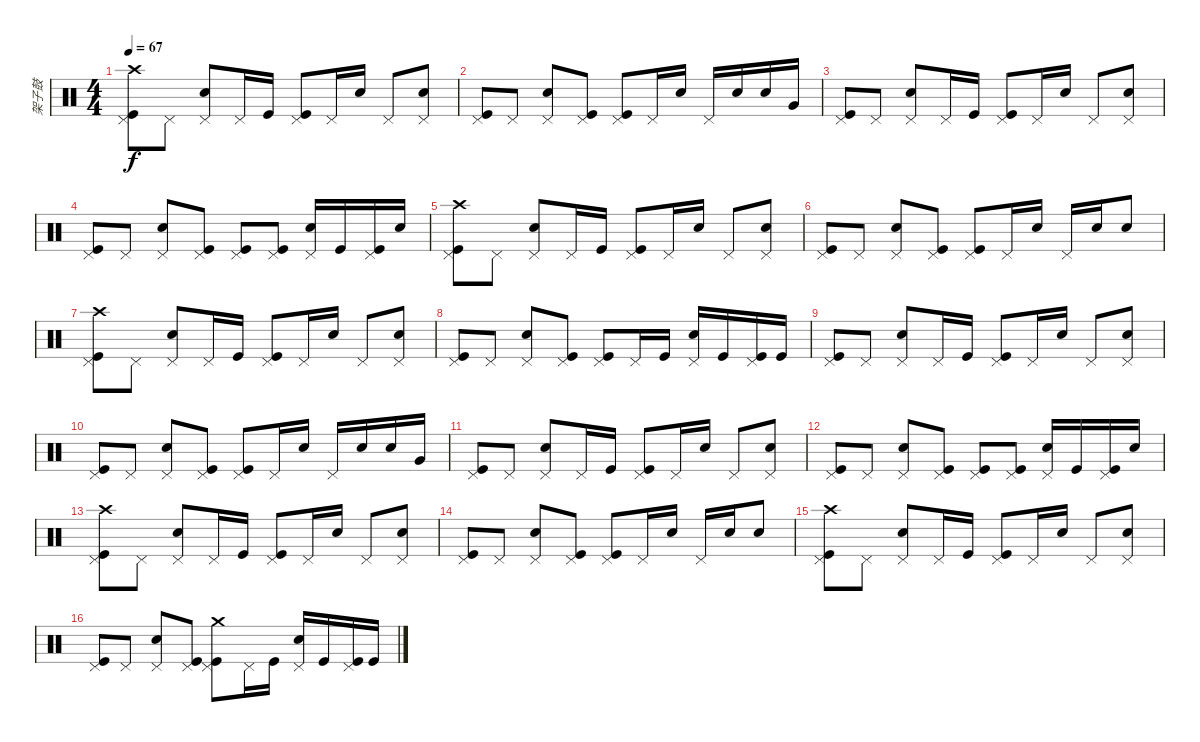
\track ("架子鼓" "架子鼓") {instrument percussion}
\staff {score}
\articulation defaults
\ts (4 4)
\tempo 67
\clef neutral
\ks c
("Kick (hit)" "Pedal Hi-Hat (hit)" "Crash high (hit)").8{dy f} "Pedal Hi-Hat (hit)".8 ("Snare (hit) 2" "Pedal Hi-Hat (hit)").8 "Pedal Hi-Hat (hit)".16 "Kick (hit)".16 ("Kick (hit)" "Pedal Hi-Hat (hit)").8 "Pedal Hi-Hat (hit)".16 "Snare (hit) 2".16 "Pedal Hi-Hat (hit)".8 ("Snare (hit) 2" "Pedal Hi-Hat (hit)").8 |
("Kick (hit)" "Pedal Hi-Hat (hit)").8 "Pedal Hi-Hat (hit)".8 ("Snare (hit) 2" "Pedal Hi-Hat (hit)").8 ("Kick (hit)" "Pedal Hi-Hat (hit)").8 ("Kick (hit)" "Pedal Hi-Hat (hit)").8 "Pedal Hi-Hat (hit)".16 "Snare (hit) 2".16 "Pedal Hi-Hat (hit)".16 "Snare (hit) 2".16 "Snare (hit) 2".16 "Very Low Tom (hit)".16 |
("Kick (hit)" "Pedal Hi-Hat (hit)").8 "Pedal Hi-Hat (hit)".8 ("Snare (hit) 2" "Pedal Hi-Hat (hit)").8 "Pedal Hi-Hat (hit)".16 "Kick (hit)".16 ("Kick (hit)" "Pedal Hi-Hat (hit)").8 "Pedal Hi-Hat (hit)".16 "Snare (hit) 2".16 "Pedal Hi-Hat (hit)".8 ("Snare (hit) 2" "Pedal Hi-Hat (hit)").8 |
("Kick (hit)" "Pedal Hi-Hat (hit)").8 "Pedal Hi-Hat (hit)".8 ("Snare (hit) 2" "Pedal Hi-Hat (hit)").8 ("Kick (hit)" "Pedal Hi-Hat (hit)").8 ("Kick (hit)" "Pedal Hi-Hat (hit)").8 ("Kick (hit)" "Pedal Hi-Hat (hit)").8 ("Snare (hit) 2" "Pedal Hi-Hat (hit)").16 "Kick (hit)".16 ("Kick (hit)" "Pedal Hi-Hat (hit)").16 "Snare (hit) 2".16 |
("Kick (hit)" "Pedal Hi-Hat (hit)" "Crash high (hit)").8 "Pedal Hi-Hat (hit)".8 ("Snare (hit) 2" "Pedal Hi-Hat (hit)").8 "Pedal Hi-Hat (hit)".16 "Kick (hit)".16 ("Kick (hit)" "Pedal Hi-Hat (hit)").8 "Pedal Hi-Hat (hit)".16 "Snare (hit) 2".16 "Pedal Hi-Hat (hit)".8 ("Snare (hit) 2" "Pedal Hi-Hat (hit)").8 |
("Kick (hit)" "Pedal Hi-Hat (hit)").8 "Pedal Hi-Hat (hit)".8 ("Snare (hit) 2" "Pedal Hi-Hat (hit)").8 ("Kick (hit)" "Pedal Hi-Hat (hit)").8 ("Kick (hit)" "Pedal Hi-Hat (hit)").8 "Pedal Hi-Hat (hit)".16 "Snare (hit) 2".16 "Pedal Hi-Hat (hit)".16 "Snare (hit) 2".16 "Snare (hit) 2".8 |
("Kick (hit)" "Pedal Hi-Hat (hit)" "Crash high (hit)").8 "Pedal Hi-Hat (hit)".8 ("Snare (hit) 2" "Pedal Hi-Hat (hit)").8 "Pedal Hi-Hat (hit)".16 "Kick (hit)".16 ("Kick (hit)" "Pedal Hi-Hat (hit)").8 "Pedal Hi-Hat (hit)".16 "Snare (hit) 2".16 "Pedal Hi-Hat (hit)".8 ("Snare (hit) 2" "Pedal Hi-Hat (hit)").8 |
("Kick (hit)" "Pedal Hi-Hat (hit)").8 "Pedal Hi-Hat (hit)".8 ("Snare (hit) 2" "Pedal Hi-Hat (hit)").8 ("Kick (hit)" "Pedal Hi-Hat (hit)").8 ("Kick (hit)" "Pedal Hi-Hat (hit)").8 "Pedal Hi-Hat (hit)".16 "Kick (hit)".16 ("Snare (hit) 2" "Pedal Hi-Hat (hit)").16 "Kick (hit)".16 ("Kick (hit)" "Pedal Hi-Hat (hit)").16 "Kick (hit)".16 |
("Kick (hit)" "Pedal Hi-Hat (hit)").8 "Pedal Hi-Hat (hit)".8 ("Snare (hit) 2" "Pedal Hi-Hat (hit)").8 "Pedal Hi-Hat (hit)".16 "Kick (hit)".16 ("Kick (hit)" "Pedal Hi-Hat (hit)").8 "Pedal Hi-Hat (hit)".16 "Snare (hit) 2".16 "Pedal Hi-Hat (hit)".8 ("Snare (hit) 2" "Pedal Hi-Hat (hit)").8 |
("Kick (hit)" "Pedal Hi-Hat (hit)").8 "Pedal Hi-Hat (hit)".8 ("Snare (hit) 2" "Pedal Hi-Hat (hit)").8 ("Kick (hit)" "Pedal Hi-Hat (hit)").8 ("Kick (hit)" "Pedal Hi-Hat (hit)").8 "Pedal Hi-Hat (hit)".16 "Snare (hit) 2".16 "Pedal Hi-Hat (hit)".16 "Snare (hit) 2".16 "Snare (hit) 2".16 "Very Low Tom (hit)".16 |
("Kick (hit)" "Pedal Hi-Hat (hit)").8 "Pedal Hi-Hat (hit)".8 ("Snare (hit) 2" "Pedal Hi-Hat (hit)").8 "Pedal Hi-Hat (hit)".16 "Kick (hit)".16 ("Kick (hit)" "Pedal Hi-Hat (hit)").8 "Pedal Hi-Hat (hit)".16 "Snare (hit) 2".16 "Pedal Hi-Hat (hit)".8 ("Snare (hit) 2" "Pedal Hi-Hat (hit)").8 |
("Kick (hit)" "Pedal Hi-Hat (hit)").8 "Pedal Hi-Hat (hit)".8 ("Snare (hit) 2" "Pedal Hi-Hat (hit)").8 ("Kick (hit)" "Pedal Hi-Hat (hit)").8 ("Kick (hit)" "Pedal Hi-Hat (hit)").8 ("Kick (hit)" "Pedal Hi-Hat (hit)").8 ("Snare (hit) 2" "Pedal Hi-Hat (hit)").16 "Kick (hit)".16 ("Kick (hit)" "Pedal Hi-Hat (hit)").16 "Snare (hit) 2".16 |
("Kick (hit)" "Pedal Hi-Hat (hit)" "Crash high (hit)").8 "Pedal Hi-Hat (hit)".8 ("Snare (hit) 2" "Pedal Hi-Hat (hit)").8 "Pedal Hi-Hat (hit)".16 "Kick (hit)".16 ("Kick (hit)" "Pedal Hi-Hat (hit)").8 "Pedal Hi-Hat (hit)".16 "Snare (hit) 2".16 "Pedal Hi-Hat (hit)".8 ("Snare (hit) 2" "Pedal Hi-Hat (hit)").8 |
("Kick (hit)" "Pedal Hi-Hat (hit)").8 "Pedal Hi-Hat (hit)".8 ("Snare (hit) 2" "Pedal Hi-Hat (hit)").8 ("Kick (hit)" "Pedal Hi-Hat (hit)").8 ("Kick (hit)" "Pedal Hi-Hat (hit)").8 "Pedal Hi-Hat (hit)".16 "Snare (hit) 2".16 "Pedal Hi-Hat (hit)".16 "Snare (hit) 2".16 "Snare (hit) 2".8 |
("Kick (hit)" "Pedal Hi-Hat (hit)" "Crash high (hit)").8 "Pedal Hi-Hat (hit)".8 ("Snare (hit) 2" "Pedal Hi-Hat (hit)").8 "Pedal Hi-Hat (hit)".16 "Kick (hit)".16 ("Kick (hit)" "Pedal Hi-Hat (hit)").8 "Pedal Hi-Hat (hit)".16 "Snare (hit) 2".16 "Pedal Hi-Hat (hit)".8 ("Snare (hit) 2" "Pedal Hi-Hat (hit)").8 |
("Kick (hit)" "Pedal Hi-Hat (hit)").8 "Pedal Hi-Hat (hit)".8 ("Snare (hit) 2" "Pedal Hi-Hat (hit)").8 ("Kick (hit)" "Pedal Hi-Hat (hit)").8 ("Kick (hit)" "Pedal Hi-Hat (hit)" "Crash medium (hit)").8 "Pedal Hi-Hat (hit)".16 "Kick (hit)".16 ("Snare (hit) 2" "Pedal Hi-Hat (hit)").16 "Kick (hit)".16 ("Kick (hit)" "Pedal Hi-Hat (hit)").16 "Kick (hit)".16
